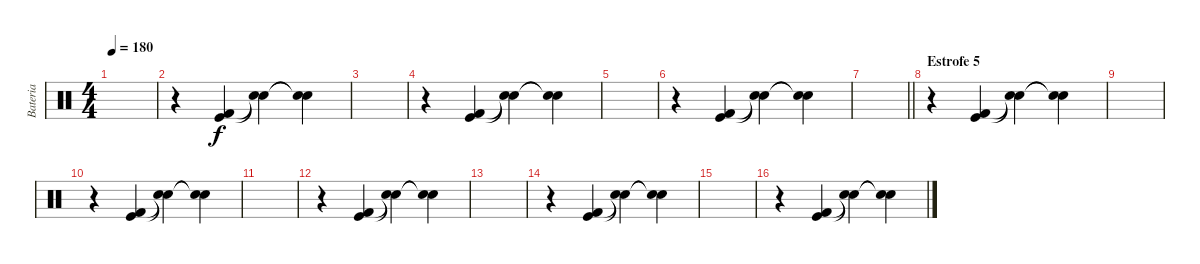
\track ("Bateria" "Bateria") {instrument percussion}
\staff {score}
\articulation defaults
\ts (4 4)
\tempo 180
\clef neutral
\ks c
|
r.4 ("Kick (hit) 2" "Kick (hit)").4 ("Snare (hit)"{t} "Snare (hit)"{t}).4 ("Snare (hit)"{t} "Snare (hit)"{t}).4 |
|
r.4 ("Kick (hit) 2" "Kick (hit)").4 ("Snare (hit)"{t} "Snare (hit)"{t}).4 ("Snare (hit)"{t} "Snare (hit)"{t}).4 |
|
r.4 ("Kick (hit) 2" "Kick (hit)").4 ("Snare (hit)"{t} "Snare (hit)"{t}).4 ("Snare (hit)"{t} "Snare (hit)"{t}).4 |
\barLineRight lightlight
|
\section ("" "Estrofe 5")
r.4 ("Kick (hit) 2" "Kick (hit)").4 ("Snare (hit)"{t} "Snare (hit)"{t}).4 ("Snare (hit)"{t} "Snare (hit)"{t}).4 |
|
r.4 ("Kick (hit) 2" "Kick (hit)").4 ("Snare (hit)"{t} "Snare (hit)"{t}).4 ("Snare (hit)"{t} "Snare (hit)"{t}).4 |
|
r.4 ("Kick (hit) 2" "Kick (hit)").4 ("Snare (hit)"{t} "Snare (hit)"{t}).4 ("Snare (hit)"{t} "Snare (hit)"{t}).4 |
|
r.4 ("Kick (hit) 2" "Kick (hit)").4 ("Snare (hit)"{t} "Snare (hit)"{t}).4 ("Snare (hit)"{t} "Snare (hit)"{t}).4 |
|
r.4 ("Kick (hit) 2" "Kick (hit)").4 ("Snare (hit)"{t} "Snare (hit)"{t}).4 ("Snare (hit)"{t} "Snare (hit)"{t}).4
